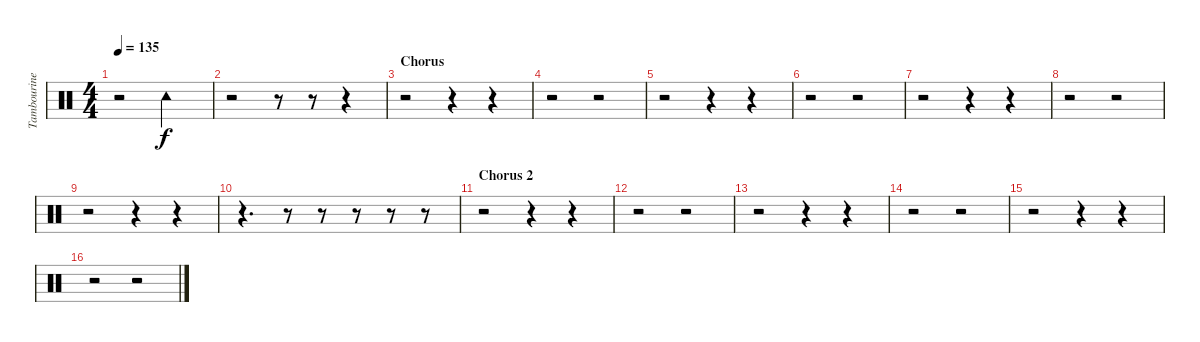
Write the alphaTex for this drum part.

\track ("Tambourine" "Tambourine") {instrument percussion}
\staff {score}
\articulation defaults
\ts (4 4)
\tempo 135
\clef neutral
\ks c
r.2{dy f} "Tambourine (hit)".2 |
r.2 r.8 r.8 r.4 |
\section ("" "Chorus")
r.2 r.4 r.4 |
r.2 r.2 |
r.2 r.4 r.4 |
r.2 r.2 |
r.2 r.4 r.4 |
r.2 r.2 |
r.2 r.4 r.4 |
r.4{d} r.8 r.8 r.8 r.8 r.8 |
\section ("" "Chorus 2")
r.2 r.4 r.4 |
r.2 r.2 |
r.2 r.4 r.4 |
r.2 r.2 |
r.2 r.4 r.4 |
r.2 r.2
